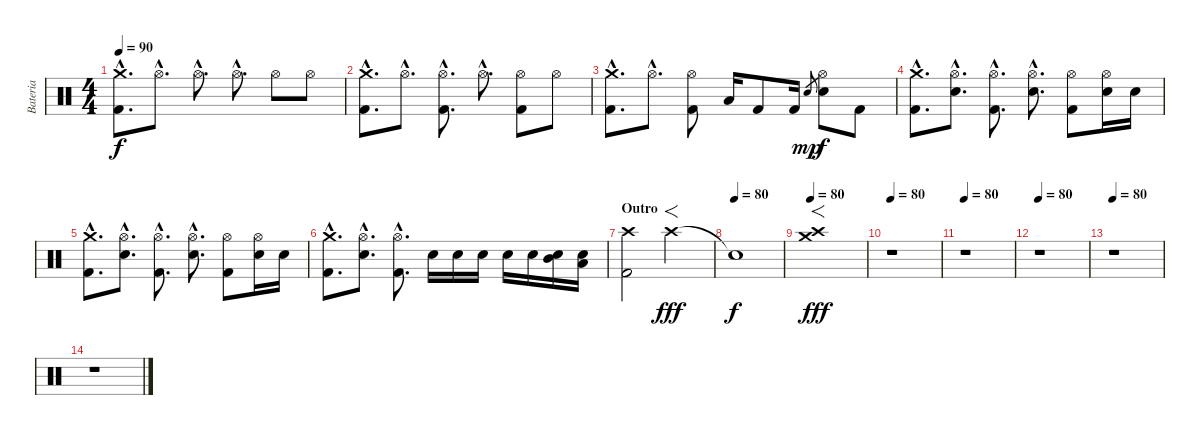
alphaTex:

\track ("Bateria" "Bateria") {instrument percussion}
\staff {score}
\articulation defaults
\ts (4 4)
\tempo 90
\clef neutral
\ks c
("Crash medium (hit)"{hac} "Kick (hit) 2"{hac}).8{d dy f} "Hi-Hat (open)"{hac}.8{d} "Hi-Hat (open)"{hac}.8{d} "Hi-Hat (open)"{hac}.8{d} "Hi-Hat (open)".8 "Hi-Hat (open)".8 |
("Crash medium (hit)"{hac} "Kick (hit) 2"{hac}).8{d} "Hi-Hat (open)"{hac}.8{d} ("Hi-Hat (open)"{hac} "Kick (hit) 2"{hac}).8{d} "Hi-Hat (open)"{hac}.8{d} ("Hi-Hat (open)" "Kick (hit) 2").8 "Hi-Hat (open)".8 |
("Crash medium (hit)"{hac} "Kick (hit) 2"{hac}).8{d} "Hi-Hat (open)"{hac}.8{d} ("Hi-Hat (open)" "Kick (hit) 2").8 "Low Tom (hit)".16 "Kick (hit) 2".8 "Kick (hit) 2".16 "Electric Snare (hit)".8{gr dy mp} ("Hi-Hat (open)" "Electric Snare (hit)").8{dy f} "Kick (hit) 2".8 |
("Crash medium (hit)"{hac} "Kick (hit) 2"{hac}).8{d} ("Hi-Hat (open)"{hac} "Electric Snare (hit)"{hac}).8{d} ("Hi-Hat (open)"{hac} "Kick (hit) 2"{hac}).8{d} ("Hi-Hat (open)"{hac} "Electric Snare (hit)"{hac}).8{d} ("Hi-Hat (open)" "Kick (hit) 2").8 ("Hi-Hat (open)" "Electric Snare (hit)").16 "Electric Snare (hit)".16 |
("Crash medium (hit)"{hac} "Kick (hit) 2"{hac}).8{d} ("Hi-Hat (open)"{hac} "Electric Snare (hit)"{hac}).8{d} ("Hi-Hat (open)"{hac} "Kick (hit) 2"{hac}).8{d} ("Hi-Hat (open)"{hac} "Electric Snare (hit)"{hac}).8{d} ("Hi-Hat (open)" "Kick (hit) 2").8 ("Hi-Hat (open)" "Electric Snare (hit)").16 "Electric Snare (hit)".16 |
("Crash medium (hit)"{hac} "Kick (hit) 2"{hac}).8{d} ("Hi-Hat (open)"{hac} "Electric Snare (hit)"{hac}).8{d} ("Hi-Hat (open)"{hac} "Kick (hit) 2"{hac}).8{d} "Electric Snare (hit)".16 "Electric Snare (hit)".16 "Electric Snare (hit)".16 "Electric Snare (hit)".16 "Electric Snare (hit)".16 ("Mid Tom (hit)" "Electric Snare (hit)").16 ("Low Tom (hit)" "Electric Snare (hit)").16 |
\section ("" "Outro")
("Crash high (hit)" "Kick (hit) 2").2 "Crash high (hit)".2{f dy fff} |
\tempo (80)
"Snare (hit)"{t}.1{dy f} |
\tempo 80
("Crash high (hit)" "Crash medium (hit)").1{f dy fff} |
\tempo 80
r.1 |
\tempo 80
r.1 |
\tempo 80
r.1 |
\tempo 80
r.1 |
r.1
